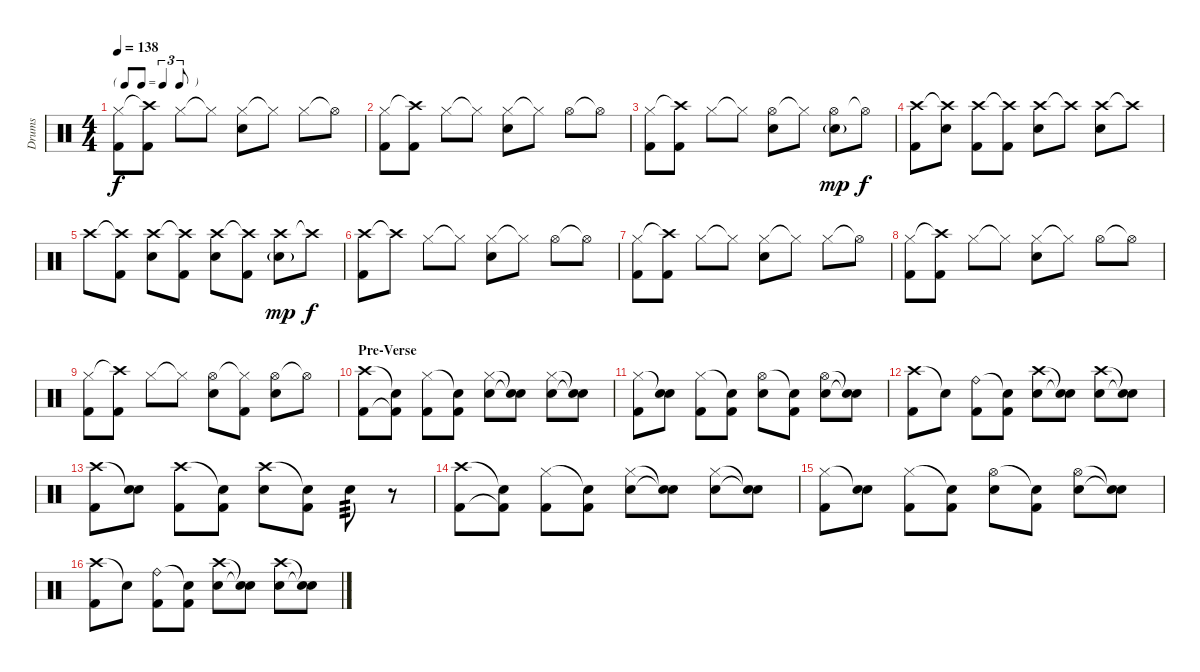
\track ("Drums" "Drums") {instrument percussion}
\staff {score}
\articulation defaults
\ts (4 4)
\tf triplet8th
\tempo 138
\clef neutral
\ks c
("Hi-Hat (closed)" "Kick (hit) 2").8{dy f} ("Crash high (hit)"{t} "Kick (hit) 2").8 "Hi-Hat (closed)".8 "Hi-Hat (closed)"{t}.8 ("Hi-Hat (closed)" "Electric Snare (hit)").8 "Hi-Hat (closed)"{t}.8 "Hi-Hat (closed)".8 "Hi-Hat (open)"{t}.8 |
("Hi-Hat (closed)" "Kick (hit) 2").8 ("Crash high (hit)"{t} "Kick (hit) 2").8 "Hi-Hat (closed)".8 "Hi-Hat (closed)"{t}.8 ("Hi-Hat (closed)" "Electric Snare (hit)").8 "Hi-Hat (closed)"{t}.8 "Hi-Hat (open)".8 "Hi-Hat (open)"{t}.8 |
("Hi-Hat (closed)" "Kick (hit) 2").8 ("Crash high (hit)"{t} "Kick (hit) 2").8 "Hi-Hat (closed)".8 "Hi-Hat (closed)"{t}.8 ("Hi-Hat (open)" "Electric Snare (hit)").8 "Hi-Hat (closed)"{t}.8 ("Hi-Hat (open)" "Electric Snare (hit)"{g}).8{dy mp} "Hi-Hat (open)"{t}.8{dy f} |
("Crash high (hit)" "Kick (hit) 2").8 ("Crash high (hit)"{t} "Electric Snare (hit)").8 ("Crash high (hit)" "Kick (hit) 2").8 ("Crash high (hit)"{t} "Kick (hit) 2").8 ("Crash high (hit)" "Electric Snare (hit)").8 "Crash high (hit)"{t}.8 ("Crash high (hit)" "Electric Snare (hit)").8 "Crash high (hit)"{t}.8 |
"Crash high (hit)".8 ("Crash high (hit)"{t} "Kick (hit) 2").8 ("Crash high (hit)" "Electric Snare (hit)").8 ("Crash high (hit)"{t} "Kick (hit) 2").8 ("Crash high (hit)" "Electric Snare (hit)").8 ("Crash high (hit)"{t} "Kick (hit) 2").8 ("Crash high (hit)" "Electric Snare (hit)"{g}).8{dy mp} "Crash high (hit)"{t}.8{dy f} |
("Crash high (hit)" "Kick (hit) 2").8 "Crash high (hit)"{t}.8 "Hi-Hat (closed)".8 "Hi-Hat (closed)"{t}.8 ("Hi-Hat (closed)" "Electric Snare (hit)").8 "Hi-Hat (closed)"{t}.8 "Hi-Hat (open)".8 "Hi-Hat (open)"{t}.8 |
("Hi-Hat (closed)" "Kick (hit) 2").8 ("Crash high (hit)"{t} "Kick (hit) 2").8 "Hi-Hat (closed)".8 "Hi-Hat (closed)"{t}.8 ("Hi-Hat (closed)" "Electric Snare (hit)").8 "Hi-Hat (closed)"{t}.8 "Hi-Hat (closed)".8 "Hi-Hat (open)"{t}.8 |
("Hi-Hat (closed)" "Kick (hit) 2").8 ("Crash high (hit)"{t} "Kick (hit) 2").8 "Hi-Hat (closed)".8 "Hi-Hat (closed)"{t}.8 ("Hi-Hat (closed)" "Electric Snare (hit)").8 "Hi-Hat (closed)"{t}.8 "Hi-Hat (open)".8 "Hi-Hat (open)"{t}.8 |
("Hi-Hat (closed)" "Kick (hit) 2").8 ("Crash high (hit)"{t} "Kick (hit) 2").8 "Hi-Hat (closed)".8 "Hi-Hat (closed)"{t}.8 ("Hi-Hat (open)" "Electric Snare (hit)").8 ("Hi-Hat (closed)"{t} "Kick (hit) 2").8 ("Hi-Hat (open)" "Electric Snare (hit)").8 "Hi-Hat (open)"{t}.8 |
\section ("" "Pre-Verse")
("Crash high (hit)" "Kick (hit) 2").8 ("Snare (hit)"{t} "Kick (hit) 2"{t}).8 ("Hi-Hat (closed)" "Kick (hit) 2").8 ("Snare (hit)"{t} "Kick (hit) 2").8 ("Hi-Hat (closed)" "Electric Snare (hit)").8 ("Snare (hit)"{t} "Snare (hit)"{t}).8 ("Hi-Hat (closed)" "Electric Snare (hit)").8 ("Snare (hit)"{t} "Snare (hit)"{t}).8 |
("Hi-Hat (closed)" "Kick (hit) 2").8 ("Snare (hit)"{t} "Electric Snare (hit)").8 ("Hi-Hat (closed)" "Kick (hit) 2").8 ("Snare (hit)"{t} "Kick (hit) 2").8 ("Hi-Hat (open)" "Electric Snare (hit)").8 ("Snare (hit)"{t} "Kick (hit) 2").8 ("Hi-Hat (open)" "Electric Snare (hit)").8 ("Snare (hit)"{t} "Snare (hit)"{t}).8 |
("Crash high (hit)" "Kick (hit) 2").8 "Snare (hit)"{t}.8 ("Ride (bell)" "Kick (hit) 2").8 ("Snare (hit)"{t} "Kick (hit) 2").8 ("Crash high (hit)" "Electric Snare (hit)").8 ("Snare (hit)"{t} "Snare (hit)"{t}).8 ("Crash high (hit)" "Electric Snare (hit)").8 ("Snare (hit)"{t} "Snare (hit)"{t}).8 |
("Crash high (hit)" "Kick (hit) 2").8 ("Snare (hit)"{t} "Electric Snare (hit)").8 ("Crash high (hit)" "Kick (hit) 2").8 ("Snare (hit)"{t} "Kick (hit) 2").8 ("Crash high (hit)" "Electric Snare (hit)").8 ("Snare (hit)"{t} "Kick (hit) 2").8 "Electric Snare (hit)".8{tp 3} r.8 |
("Crash high (hit)" "Kick (hit) 2").8 ("Snare (hit)"{t} "Kick (hit) 2"{t}).8 ("Hi-Hat (closed)" "Kick (hit) 2").8 ("Snare (hit)"{t} "Kick (hit) 2").8 ("Hi-Hat (closed)" "Electric Snare (hit)").8 ("Snare (hit)"{t} "Snare (hit)"{t}).8 ("Hi-Hat (closed)" "Electric Snare (hit)").8 ("Snare (hit)"{t} "Snare (hit)"{t}).8 |
("Hi-Hat (closed)" "Kick (hit) 2").8 ("Snare (hit)"{t} "Electric Snare (hit)").8 ("Hi-Hat (closed)" "Kick (hit) 2").8 ("Snare (hit)"{t} "Kick (hit) 2").8 ("Hi-Hat (open)" "Electric Snare (hit)").8 ("Snare (hit)"{t} "Kick (hit) 2").8 ("Hi-Hat (open)" "Electric Snare (hit)").8 ("Snare (hit)"{t} "Snare (hit)"{t}).8 |
("Crash high (hit)" "Kick (hit) 2").8 "Snare (hit)"{t}.8 ("Ride (bell)" "Kick (hit) 2").8 ("Snare (hit)"{t} "Kick (hit) 2").8 ("Crash high (hit)" "Electric Snare (hit)").8 ("Snare (hit)"{t} "Snare (hit)"{t}).8 ("Crash high (hit)" "Electric Snare (hit)").8 ("Snare (hit)"{t} "Snare (hit)"{t}).8
